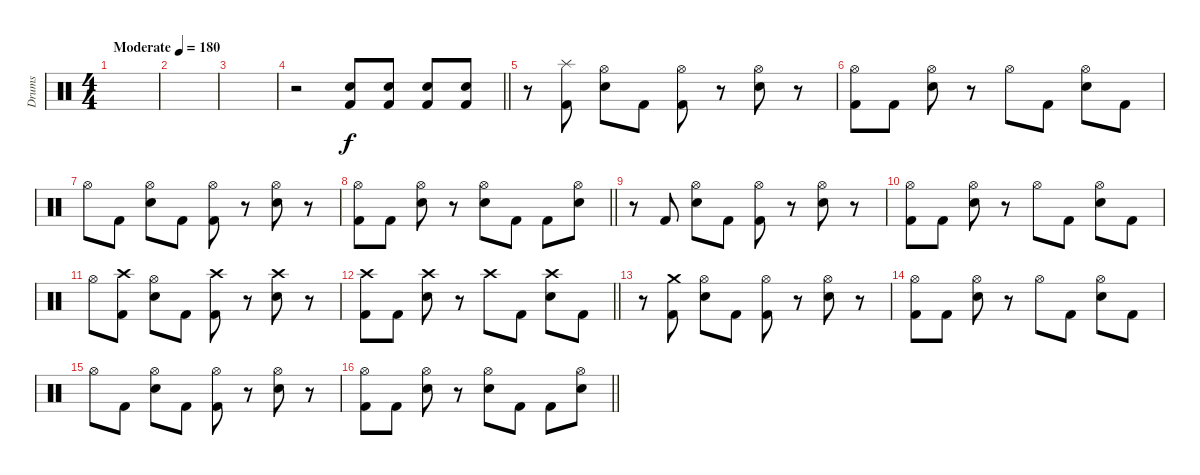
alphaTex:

\track ("Drums" "Drums") {instrument percussion}
\staff {score}
\articulation defaults
\ts (4 4)
\tempo (180 "Moderate")
\clef neutral
\ks c
|
|
|
\barLineRight lightlight
r.2 ("Electric Snare (hit)" "Kick (hit) 2").8 ("Electric Snare (hit)" "Kick (hit) 2").8 ("Electric Snare (hit)" "Kick (hit) 2").8 ("Electric Snare (hit)" "Kick (hit) 2").8 |
r.8 ("Splash (hit)" "Kick (hit) 2").8 ("Hi-Hat (open)" "Electric Snare (hit)").8 "Kick (hit) 2".8 ("Hi-Hat (open)" "Kick (hit) 2").8 r.8 ("Hi-Hat (open)" "Electric Snare (hit)").8 r.8 |
("Hi-Hat (open)" "Kick (hit) 2").8 "Kick (hit) 2".8 ("Hi-Hat (open)" "Electric Snare (hit)").8 r.8 "Hi-Hat (open)".8 "Kick (hit) 2".8 ("Hi-Hat (open)" "Electric Snare (hit)").8 "Kick (hit) 2".8 |
"Hi-Hat (open)".8 "Kick (hit) 2".8 ("Hi-Hat (open)" "Electric Snare (hit)").8 "Kick (hit) 2".8 ("Hi-Hat (open)" "Kick (hit) 2").8 r.8 ("Hi-Hat (open)" "Electric Snare (hit)").8 r.8 |
\barLineRight lightlight
("Hi-Hat (open)" "Kick (hit) 2").8 "Kick (hit) 2".8 ("Hi-Hat (open)" "Electric Snare (hit)").8 r.8 ("Hi-Hat (open)" "Electric Snare (hit)").8 "Kick (hit) 2".8 "Kick (hit) 2".8 ("Hi-Hat (open)" "Electric Snare (hit)").8 |
r.8 "Kick (hit) 2".8 ("Hi-Hat (open)" "Electric Snare (hit)").8 "Kick (hit) 2".8 ("Hi-Hat (open)" "Kick (hit) 2").8 r.8 ("Hi-Hat (open)" "Electric Snare (hit)").8 r.8 |
("Hi-Hat (open)" "Kick (hit) 2").8 "Kick (hit) 2".8 ("Hi-Hat (open)" "Electric Snare (hit)").8 r.8 "Hi-Hat (open)".8 "Kick (hit) 2".8 ("Hi-Hat (open)" "Electric Snare (hit)").8 "Kick (hit) 2".8 |
"Hi-Hat (open)".8 ("Crash high (hit)" "Kick (hit) 2").8 ("Hi-Hat (open)" "Electric Snare (hit)").8 "Kick (hit) 2".8 ("Crash high (hit)" "Kick (hit) 2").8 r.8 ("Crash high (hit)" "Electric Snare (hit)").8 r.8 |
\barLineRight lightlight
("Crash high (hit)" "Kick (hit) 2").8 "Kick (hit) 2".8 ("Crash high (hit)" "Electric Snare (hit)").8 r.8 "Crash high (hit)".8 "Kick (hit) 2".8 ("Crash high (hit)" "Electric Snare (hit)").8 "Kick (hit) 2".8 |
r.8 ("Crash medium (hit)" "Kick (hit) 2").8 ("Hi-Hat (open)" "Electric Snare (hit)").8 "Kick (hit) 2".8 ("Hi-Hat (open)" "Kick (hit) 2").8 r.8 ("Hi-Hat (open)" "Electric Snare (hit)").8 r.8 |
("Hi-Hat (open)" "Kick (hit) 2").8 "Kick (hit) 2".8 ("Hi-Hat (open)" "Electric Snare (hit)").8 r.8 "Hi-Hat (open)".8 "Kick (hit) 2".8 ("Hi-Hat (open)" "Electric Snare (hit)").8 "Kick (hit) 2".8 |
"Hi-Hat (open)".8 "Kick (hit) 2".8 ("Hi-Hat (open)" "Electric Snare (hit)").8 "Kick (hit) 2".8 ("Hi-Hat (open)" "Kick (hit) 2").8 r.8 ("Hi-Hat (open)" "Electric Snare (hit)").8 r.8 |
\barLineRight lightlight
("Hi-Hat (open)" "Kick (hit) 2").8 "Kick (hit) 2".8 ("Hi-Hat (open)" "Electric Snare (hit)").8 r.8 ("Hi-Hat (open)" "Electric Snare (hit)").8 "Kick (hit) 2".8 "Kick (hit) 2".8 ("Hi-Hat (open)" "Electric Snare (hit)").8
